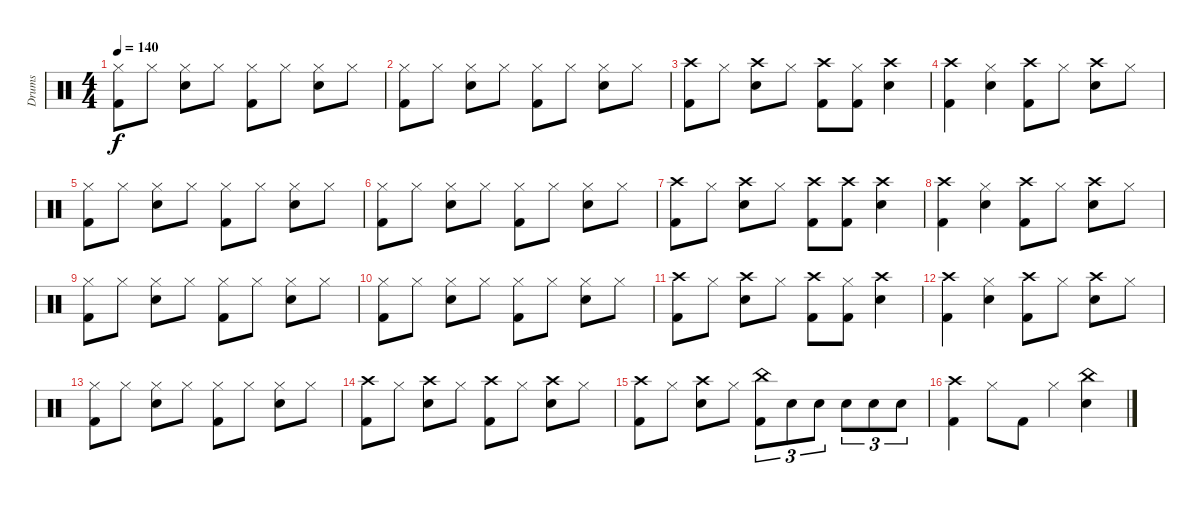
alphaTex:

\track ("Drums" "Drums") {instrument percussion}
\staff {score}
\articulation defaults
\ts (4 4)
\tempo 140
\clef neutral
\ks c
("Hi-Hat (closed)" "Kick (hit) 2").8{dy f} "Hi-Hat (closed)".8 ("Hi-Hat (closed)" "Electric Snare (hit)").8 "Hi-Hat (closed)".8 ("Hi-Hat (closed)" "Kick (hit) 2").8 "Hi-Hat (closed)".8 ("Hi-Hat (closed)" "Electric Snare (hit)").8 "Hi-Hat (closed)".8 |
("Hi-Hat (closed)" "Kick (hit) 2").8 "Hi-Hat (closed)".8 ("Hi-Hat (closed)" "Electric Snare (hit)").8 "Hi-Hat (closed)".8 ("Hi-Hat (closed)" "Kick (hit) 2").8 "Hi-Hat (closed)".8 ("Hi-Hat (closed)" "Electric Snare (hit)").8 "Hi-Hat (closed)".8 |
("Crash high (hit)" "Kick (hit) 2").8 "Hi-Hat (closed)".8 ("Crash high (hit)" "Electric Snare (hit)").8 "Hi-Hat (closed)".8 ("Crash high (hit)" "Kick (hit) 2").8 ("Hi-Hat (closed)" "Kick (hit) 2").8 ("Crash high (hit)" "Electric Snare (hit)").4 |
("Crash high (hit)" "Kick (hit) 2").4 ("Hi-Hat (closed)" "Electric Snare (hit)").4 ("Crash high (hit)" "Kick (hit) 2").8 "Hi-Hat (closed)".8 ("Crash high (hit)" "Electric Snare (hit)").8 "Hi-Hat (closed)".8 |
("Hi-Hat (closed)" "Kick (hit) 2").8 "Hi-Hat (closed)".8 ("Hi-Hat (closed)" "Electric Snare (hit)").8 "Hi-Hat (closed)".8 ("Hi-Hat (closed)" "Kick (hit) 2").8 "Hi-Hat (closed)".8 ("Hi-Hat (closed)" "Electric Snare (hit)").8 "Hi-Hat (closed)".8 |
("Hi-Hat (closed)" "Kick (hit) 2").8 "Hi-Hat (closed)".8 ("Hi-Hat (closed)" "Electric Snare (hit)").8 "Hi-Hat (closed)".8 ("Hi-Hat (closed)" "Kick (hit) 2").8 "Hi-Hat (closed)".8 ("Hi-Hat (closed)" "Electric Snare (hit)").8 "Hi-Hat (closed)".8 |
("Crash high (hit)" "Kick (hit) 2").8 "Hi-Hat (closed)".8 ("Crash high (hit)" "Electric Snare (hit)").8 "Hi-Hat (closed)".8 ("Crash high (hit)" "Kick (hit) 2").8 ("Crash high (hit)" "Kick (hit) 2").8 ("Crash high (hit)" "Electric Snare (hit)").4 |
("Crash high (hit)" "Kick (hit) 2").4 ("Hi-Hat (closed)" "Electric Snare (hit)").4 ("Crash high (hit)" "Kick (hit) 2").8 "Hi-Hat (closed)".8 ("Crash high (hit)" "Electric Snare (hit)").8 "Hi-Hat (closed)".8 |
("Hi-Hat (closed)" "Kick (hit) 2").8 "Hi-Hat (closed)".8 ("Hi-Hat (closed)" "Electric Snare (hit)").8 "Hi-Hat (closed)".8 ("Hi-Hat (closed)" "Kick (hit) 2").8 "Hi-Hat (closed)".8 ("Hi-Hat (closed)" "Electric Snare (hit)").8 "Hi-Hat (closed)".8 |
("Hi-Hat (closed)" "Kick (hit) 2").8 "Hi-Hat (closed)".8 ("Hi-Hat (closed)" "Electric Snare (hit)").8 "Hi-Hat (closed)".8 ("Hi-Hat (closed)" "Kick (hit) 2").8 "Hi-Hat (closed)".8 ("Hi-Hat (closed)" "Electric Snare (hit)").8 "Hi-Hat (closed)".8 |
("Crash high (hit)" "Kick (hit) 2").8 "Hi-Hat (closed)".8 ("Crash high (hit)" "Electric Snare (hit)").8 "Hi-Hat (closed)".8 ("Crash high (hit)" "Kick (hit) 2").8 ("Hi-Hat (closed)" "Kick (hit) 2").8 ("Crash high (hit)" "Electric Snare (hit)").4 |
("Crash high (hit)" "Kick (hit) 2").4 ("Hi-Hat (closed)" "Electric Snare (hit)").4 ("Crash high (hit)" "Kick (hit) 2").8 "Hi-Hat (closed)".8 ("Crash high (hit)" "Electric Snare (hit)").8 "Hi-Hat (closed)".8 |
("Hi-Hat (closed)" "Kick (hit) 2").8 "Hi-Hat (closed)".8 ("Hi-Hat (closed)" "Electric Snare (hit)").8 "Hi-Hat (closed)".8 ("Hi-Hat (closed)" "Kick (hit) 2").8 "Hi-Hat (closed)".8 ("Hi-Hat (closed)" "Electric Snare (hit)").8 "Hi-Hat (closed)".8 |
("Crash high (hit)" "Kick (hit) 2").8 "Hi-Hat (closed)".8 ("Crash high (hit)" "Electric Snare (hit)").8 "Hi-Hat (closed)".8 ("Crash high (hit)" "Kick (hit) 2").8 "Hi-Hat (closed)".8 ("Crash high (hit)" "Electric Snare (hit)").8 "Hi-Hat (closed)".8 |
("Crash high (hit)" "Kick (hit) 2").8 "Hi-Hat (closed)".8 ("Crash high (hit)" "Electric Snare (hit)").8 "Hi-Hat (closed)".8 ("China (hit)" "Kick (hit) 2").8{tu (3 2)} "Electric Snare (hit)".8{tu (3 2)} "Electric Snare (hit)".8{tu (3 2)} "Electric Snare (hit)".8{tu (3 2)} "Electric Snare (hit)".8{tu (3 2)} "Electric Snare (hit)".8{tu (3 2)} |
("Crash high (hit)" "Kick (hit) 2").4 "Hi-Hat (closed)".8 "Kick (hit) 2".8 "Hi-Hat (closed)".4 ("China (hit)" "Electric Snare (hit)").4
